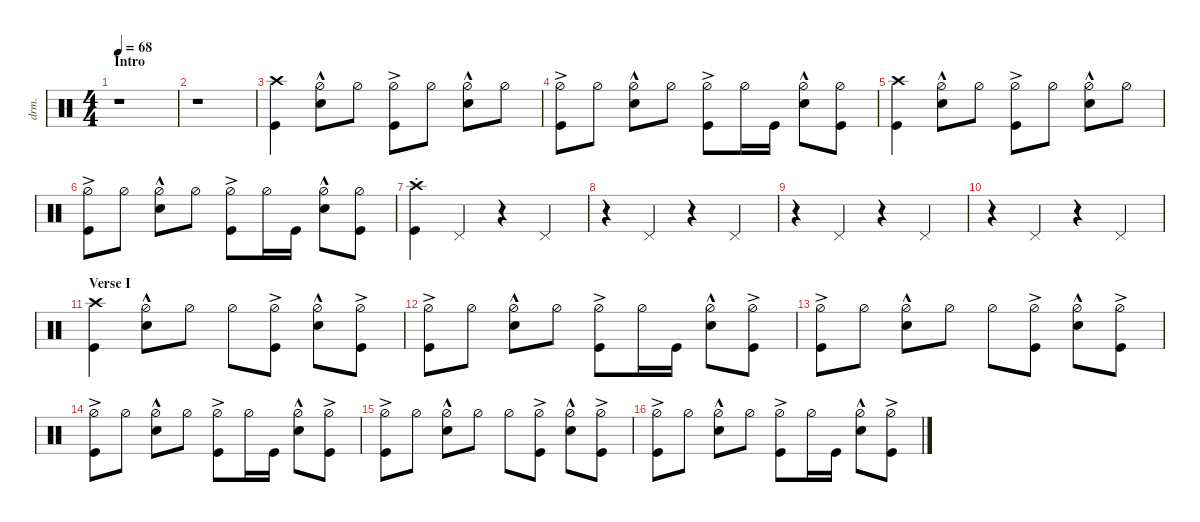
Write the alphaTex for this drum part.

\defaultSystemsLayout 4
\hideDynamics
\bracketExtendMode nobrackets
\otherSystemsTrackNameOrientation horizontal
\track ("Drums" "drm.") {defaultSystemsLayout 4 instrument percussion}
\staff
\articulation defaults
\ts (4 4)
\section ("" "Intro")
\tempo 68
\clef neutral
\ks c
r.1{dy f} |
r.1 |
("Crash high (hit)" "Kick (hit)").4 ("Snare (hit) 2" "Hi-Hat (half)"{hac}).8 "Hi-Hat (half)".8 ("Hi-Hat (half)"{ac} "Kick (hit)").8 "Hi-Hat (half)".8 ("Snare (hit) 2" "Hi-Hat (half)"{hac}).8 "Hi-Hat (half)".8 |
("Kick (hit)" "Hi-Hat (half)"{ac}).8 "Hi-Hat (half)".8 ("Snare (hit) 2" "Hi-Hat (half)"{hac}).8 "Hi-Hat (half)".8 ("Hi-Hat (half)"{ac} "Kick (hit)").8 "Hi-Hat (half)".16 "Kick (hit)".16 ("Snare (hit) 2" "Hi-Hat (half)"{hac}).8 ("Hi-Hat (half)" "Kick (hit)").8 |
("Crash high (hit)" "Kick (hit)").4 ("Snare (hit) 2" "Hi-Hat (half)"{hac}).8 "Hi-Hat (half)".8 ("Hi-Hat (half)"{ac} "Kick (hit)").8 "Hi-Hat (half)".8 ("Snare (hit) 2" "Hi-Hat (half)"{hac}).8 "Hi-Hat (half)".8 |
("Kick (hit)" "Hi-Hat (half)"{ac}).8 "Hi-Hat (half)".8 ("Snare (hit) 2" "Hi-Hat (half)"{hac}).8 "Hi-Hat (half)".8 ("Hi-Hat (half)"{ac} "Kick (hit)").8 "Hi-Hat (half)".16 "Kick (hit)".16 ("Snare (hit) 2" "Hi-Hat (half)"{hac}).8 ("Hi-Hat (half)" "Kick (hit)").8 |
("Kick (hit)" "Crash high (hit)"{st}).4{dy mf} "Pedal Hi-Hat (hit)".4 r.4 "Pedal Hi-Hat (hit)".4 |
r.4 "Pedal Hi-Hat (hit)".4 r.4 "Pedal Hi-Hat (hit)".4 |
r.4 "Pedal Hi-Hat (hit)".4 r.4 "Pedal Hi-Hat (hit)".4 |
r.4 "Pedal Hi-Hat (hit)".4 r.4 "Pedal Hi-Hat (hit)".4 |
\section ("" "Verse I")
("Crash high (hit)" "Kick (hit)").4{dy f} ("Snare (hit) 2" "Hi-Hat (half)"{hac}).8 "Hi-Hat (half)".8 "Hi-Hat (half)".8 ("Hi-Hat (half)"{ac} "Kick (hit)").8 ("Snare (hit) 2" "Hi-Hat (half)"{hac}).8 ("Hi-Hat (half)"{ac} "Kick (hit)").8 |
("Kick (hit)" "Hi-Hat (half)"{ac}).8 "Hi-Hat (half)".8 ("Snare (hit) 2" "Hi-Hat (half)"{hac}).8 "Hi-Hat (half)".8 ("Hi-Hat (half)"{ac} "Kick (hit)").8 "Hi-Hat (half)".16 "Kick (hit)".16 ("Snare (hit) 2" "Hi-Hat (half)"{hac}).8 ("Hi-Hat (half)"{ac} "Kick (hit)").8 |
("Kick (hit)" "Hi-Hat (half)"{ac}).8 "Hi-Hat (half)".8 ("Snare (hit) 2" "Hi-Hat (half)"{hac}).8 "Hi-Hat (half)".8 "Hi-Hat (half)".8 ("Hi-Hat (half)"{ac} "Kick (hit)").8 ("Snare (hit) 2" "Hi-Hat (half)"{hac}).8 ("Hi-Hat (half)"{ac} "Kick (hit)").8 |
("Kick (hit)" "Hi-Hat (half)"{ac}).8 "Hi-Hat (half)".8 ("Snare (hit) 2" "Hi-Hat (half)"{hac}).8 "Hi-Hat (half)".8 ("Hi-Hat (half)"{ac} "Kick (hit)").8 "Hi-Hat (half)".16 "Kick (hit)".16 ("Snare (hit) 2" "Hi-Hat (half)"{hac}).8 ("Hi-Hat (half)"{ac} "Kick (hit)").8 |
("Kick (hit)" "Hi-Hat (half)"{ac}).8 "Hi-Hat (half)".8 ("Snare (hit) 2" "Hi-Hat (half)"{hac}).8 "Hi-Hat (half)".8 "Hi-Hat (half)".8 ("Hi-Hat (half)"{ac} "Kick (hit)").8 ("Snare (hit) 2" "Hi-Hat (half)"{hac}).8 ("Hi-Hat (half)"{ac} "Kick (hit)").8 |
("Kick (hit)" "Hi-Hat (half)"{ac}).8 "Hi-Hat (half)".8 ("Snare (hit) 2" "Hi-Hat (half)"{hac}).8 "Hi-Hat (half)".8 ("Hi-Hat (half)"{ac} "Kick (hit)").8 "Hi-Hat (half)".16 "Kick (hit)".16 ("Snare (hit) 2" "Hi-Hat (half)"{hac}).8 ("Hi-Hat (half)"{ac} "Kick (hit)").8
